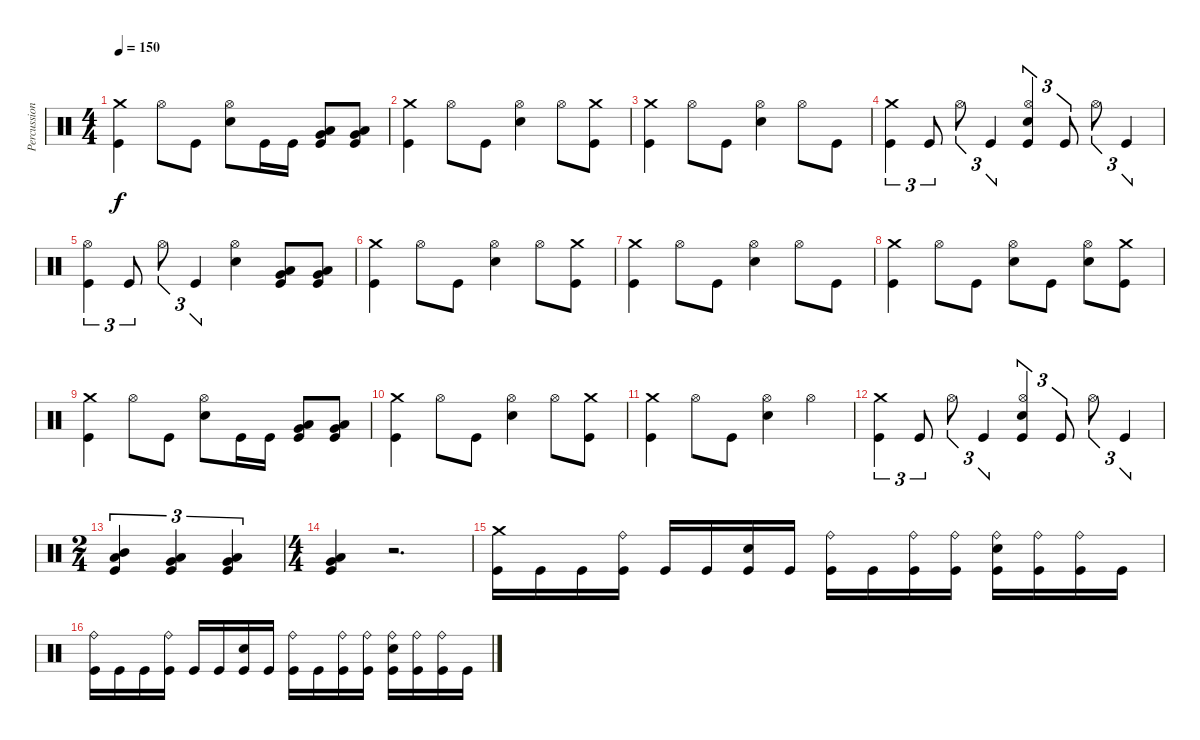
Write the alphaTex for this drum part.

\track ("Percussions" "Percussion") {instrument percussion}
\staff {score}
\articulation defaults
\ts (4 4)
\tempo 150
\clef neutral
\ks c
("Kick (hit)" "Crash medium (hit)").4{dy f} "Hi-Hat (open)".8 "Kick (hit)".8 ("Electric Snare (hit)" "Hi-Hat (open)").8 "Kick (hit)".16 "Kick (hit)".16 ("Kick (hit)" "Very Low Tom (hit)" "Low Floor Tom (hit)").8 ("Kick (hit)" "Very Low Tom (hit)" "Low Floor Tom (hit)").8 |
("Kick (hit)" "Crash medium (hit)").4 "Hi-Hat (open)".8 "Kick (hit)".8 ("Electric Snare (hit)" "Hi-Hat (open)").4 "Hi-Hat (open)".8 ("Kick (hit)" "Crash medium (hit)").8 |
("Kick (hit)" "Crash medium (hit)").4 "Hi-Hat (open)".8 "Kick (hit)".8 ("Electric Snare (hit)" "Hi-Hat (open)").4 "Hi-Hat (open)".8 "Kick (hit)".8 |
("Kick (hit)" "Crash medium (hit)").4{tu (3 2)} "Kick (hit)".8{tu (3 2)} "Hi-Hat (open)".8{tu (3 2)} "Kick (hit)".4{tu (3 2)} ("Kick (hit)" "Electric Snare (hit)" "Hi-Hat (open)").4{tu (3 2)} "Kick (hit)".8{tu (3 2)} "Hi-Hat (open)".8{tu (3 2)} "Kick (hit)".4{tu (3 2)} |
("Kick (hit)" "Hi-Hat (open)").4{tu (3 2)} "Kick (hit)".8{tu (3 2)} "Hi-Hat (open)".8{tu (3 2)} "Kick (hit)".4{tu (3 2)} ("Electric Snare (hit)" "Hi-Hat (open)").4 ("Kick (hit)" "Very Low Tom (hit)" "Low Floor Tom (hit)").8 ("Kick (hit)" "Very Low Tom (hit)" "Low Floor Tom (hit)").8 |
("Kick (hit)" "Crash medium (hit)").4 "Hi-Hat (open)".8 "Kick (hit)".8 ("Electric Snare (hit)" "Hi-Hat (open)").4 "Hi-Hat (open)".8 ("Kick (hit)" "Crash medium (hit)").8 |
("Kick (hit)" "Crash medium (hit)").4 "Hi-Hat (open)".8 "Kick (hit)".8 ("Electric Snare (hit)" "Hi-Hat (open)").4 "Hi-Hat (open)".8 "Kick (hit)".8 |
("Kick (hit)" "Crash medium (hit)").4 "Hi-Hat (open)".8 "Kick (hit)".8 ("Electric Snare (hit)" "Hi-Hat (open)").8 "Kick (hit)".8 ("Electric Snare (hit)" "Hi-Hat (open)").8 ("Kick (hit)" "Crash medium (hit)").8 |
("Kick (hit)" "Crash medium (hit)").4 "Hi-Hat (open)".8 "Kick (hit)".8 ("Electric Snare (hit)" "Hi-Hat (open)").8 "Kick (hit)".16 "Kick (hit)".16 ("Kick (hit)" "Very Low Tom (hit)" "Low Floor Tom (hit)").8 ("Kick (hit)" "Very Low Tom (hit)" "Low Floor Tom (hit)").8 |
("Kick (hit)" "Crash medium (hit)").4 "Hi-Hat (open)".8 "Kick (hit)".8 ("Electric Snare (hit)" "Hi-Hat (open)").4 "Hi-Hat (open)".8 ("Kick (hit)" "Crash medium (hit)").8 |
("Kick (hit)" "Crash medium (hit)").4 "Hi-Hat (open)".8 "Kick (hit)".8 ("Electric Snare (hit)" "Hi-Hat (open)").4 "Hi-Hat (open)".4 |
("Kick (hit)" "Crash medium (hit)").4{tu (3 2)} "Kick (hit)".8{tu (3 2)} "Hi-Hat (open)".8{tu (3 2)} "Kick (hit)".4{tu (3 2)} ("Kick (hit)" "Electric Snare (hit)" "Hi-Hat (open)").4{tu (3 2)} "Kick (hit)".8{tu (3 2)} "Hi-Hat (open)".8{tu (3 2)} "Kick (hit)".4{tu (3 2)} |
\ts (2 4)
("Kick (hit)" "Mid Tom (hit)" "Low Tom (hit)").4{tu (3 2)} ("Kick (hit)" "Low Tom (hit)" "Very Low Tom (hit)").4{tu (3 2)} ("Kick (hit)" "Very Low Tom (hit)" "Low Floor Tom (hit)").4{tu (3 2)} |
\ts (4 4)
("Kick (hit)" "Very Low Tom (hit)" "Low Floor Tom (hit)").4 r.2{d} |
("Kick (hit)" "Crash medium (hit)").16 "Kick (hit)".16 "Kick (hit)".16 ("Kick (hit)" "Ride (bell)").16 "Kick (hit)".16 "Kick (hit)".16 ("Kick (hit)" "Electric Snare (hit)").16 "Kick (hit)".16 ("Kick (hit)" "Ride (bell)").16 "Kick (hit)".16 ("Kick (hit)" "Ride (bell)").16 ("Kick (hit)" "Ride (bell)").16 ("Kick (hit)" "Electric Snare (hit)" "Ride (bell)").16 ("Kick (hit)" "Ride (bell)").16 ("Kick (hit)" "Ride (bell)").16 "Kick (hit)".16 |
("Kick (hit)" "Ride (bell)").16 "Kick (hit)".16 "Kick (hit)".16 ("Kick (hit)" "Ride (bell)").16 "Kick (hit)".16 "Kick (hit)".16 ("Kick (hit)" "Electric Snare (hit)").16 "Kick (hit)".16 ("Kick (hit)" "Ride (bell)").16 "Kick (hit)".16 ("Kick (hit)" "Ride (bell)").16 ("Kick (hit)" "Ride (bell)").16 ("Kick (hit)" "Electric Snare (hit)" "Ride (bell)").16 ("Kick (hit)" "Ride (bell)").16 ("Kick (hit)" "Ride (bell)").16 "Kick (hit)".16
